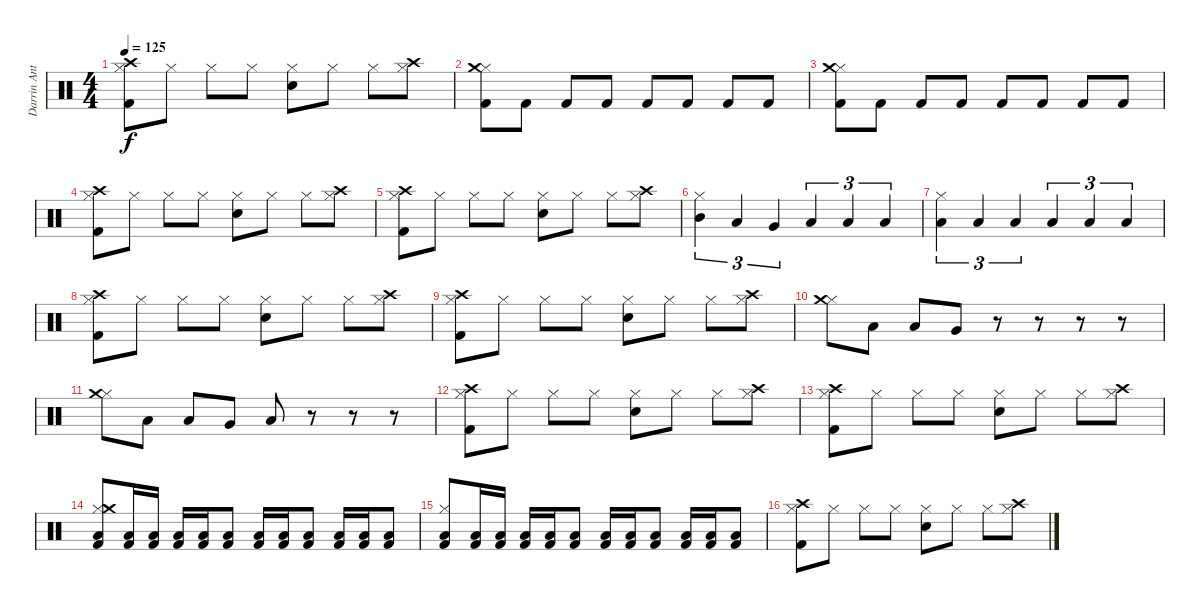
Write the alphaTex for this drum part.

\track ("Darrin Anthony (Drums)" "Darrin Ant") {instrument percussion}
\staff {score}
\articulation defaults
\ts (4 4)
\tempo 125
\clef neutral
\ks c
("Kick (hit) 2" "Hi-Hat (closed)" "Crash high (hit)").8{dy f} "Hi-Hat (closed)".8 "Hi-Hat (closed)".8 "Hi-Hat (closed)".8 ("Electric Snare (hit)" "Hi-Hat (closed)").8 "Hi-Hat (closed)".8 "Hi-Hat (closed)".8 ("Hi-Hat (closed)" "Crash high (hit)").8 |
("Kick (hit) 2" "Hi-Hat (closed)" "Crash medium (hit)").8 "Kick (hit) 2".8 "Kick (hit) 2".8 "Kick (hit) 2".8 "Kick (hit) 2".8 "Kick (hit) 2".8 "Kick (hit) 2".8 "Kick (hit) 2".8 |
("Kick (hit) 2" "Hi-Hat (closed)" "Crash medium (hit)").8 "Kick (hit) 2".8 "Kick (hit) 2".8 "Kick (hit) 2".8 "Kick (hit) 2".8 "Kick (hit) 2".8 "Kick (hit) 2".8 "Kick (hit) 2".8 |
("Kick (hit) 2" "Hi-Hat (closed)" "Crash high (hit)").8 "Hi-Hat (closed)".8 "Hi-Hat (closed)".8 "Hi-Hat (closed)".8 ("Electric Snare (hit)" "Hi-Hat (closed)").8 "Hi-Hat (closed)".8 "Hi-Hat (closed)".8 ("Hi-Hat (closed)" "Crash high (hit)").8 |
("Kick (hit) 2" "Hi-Hat (closed)" "Crash high (hit)").8 "Hi-Hat (closed)".8 "Hi-Hat (closed)".8 "Hi-Hat (closed)".8 ("Electric Snare (hit)" "Hi-Hat (closed)").8 "Hi-Hat (closed)".8 "Hi-Hat (closed)".8 ("Hi-Hat (closed)" "Crash high (hit)").8 |
("Mid Tom (hit)" "Hi-Hat (closed)").4{tu (3 2)} "Low Tom (hit)".4{tu (3 2)} "Very Low Tom (hit)".4{tu (3 2)} "Low Floor Tom (hit)".4{tu (3 2)} "Low Floor Tom (hit)".4{tu (3 2)} "Low Floor Tom (hit)".4{tu (3 2)} |
("Low Floor Tom (hit)" "Hi-Hat (closed)").4{tu (3 2)} "Low Floor Tom (hit)".4{tu (3 2)} "Low Floor Tom (hit)".4{tu (3 2)} "Low Floor Tom (hit)".4{tu (3 2)} "Low Floor Tom (hit)".4{tu (3 2)} "Low Floor Tom (hit)".4{tu (3 2)} |
("Kick (hit) 2" "Hi-Hat (closed)" "Crash high (hit)").8 "Hi-Hat (closed)".8 "Hi-Hat (closed)".8 "Hi-Hat (closed)".8 ("Electric Snare (hit)" "Hi-Hat (closed)").8 "Hi-Hat (closed)".8 "Hi-Hat (closed)".8 ("Hi-Hat (closed)" "Crash high (hit)").8 |
("Kick (hit) 2" "Hi-Hat (closed)" "Crash high (hit)").8 "Hi-Hat (closed)".8 "Hi-Hat (closed)".8 "Hi-Hat (closed)".8 ("Electric Snare (hit)" "Hi-Hat (closed)").8 "Hi-Hat (closed)".8 "Hi-Hat (closed)".8 ("Hi-Hat (closed)" "Crash high (hit)").8 |
("Hi-Hat (closed)" "Crash medium (hit)").8 "Low Tom (hit)".8 "Low Tom (hit)".8 "Very Low Tom (hit)".8 r.8 r.8 r.8 r.8 |
("Hi-Hat (closed)" "Crash medium (hit)").8 "Low Tom (hit)".8 "Low Tom (hit)".8 "Very Low Tom (hit)".8 "Low Floor Tom (hit)".8 r.8 r.8 r.8 |
("Kick (hit) 2" "Hi-Hat (closed)" "Crash high (hit)").8 "Hi-Hat (closed)".8 "Hi-Hat (closed)".8 "Hi-Hat (closed)".8 ("Electric Snare (hit)" "Hi-Hat (closed)").8 "Hi-Hat (closed)".8 "Hi-Hat (closed)".8 ("Hi-Hat (closed)" "Crash high (hit)").8 |
("Kick (hit) 2" "Hi-Hat (closed)" "Crash high (hit)").8 "Hi-Hat (closed)".8 "Hi-Hat (closed)".8 "Hi-Hat (closed)".8 ("Electric Snare (hit)" "Hi-Hat (closed)").8 "Hi-Hat (closed)".8 "Hi-Hat (closed)".8 ("Hi-Hat (closed)" "Crash high (hit)").8 |
("Kick (hit) 2" "Low Floor Tom (hit)" "Hi-Hat (closed)" "Crash medium (hit)").8 ("Kick (hit) 2" "Low Floor Tom (hit)").16 ("Kick (hit) 2" "Low Floor Tom (hit)").16 ("Kick (hit) 2" "Low Floor Tom (hit)").16 ("Kick (hit) 2" "Low Floor Tom (hit)").16 ("Kick (hit) 2" "Low Floor Tom (hit)").8 ("Kick (hit) 2" "Low Floor Tom (hit)").16 ("Kick (hit) 2" "Low Floor Tom (hit)").16 ("Kick (hit) 2" "Low Floor Tom (hit)").8 ("Kick (hit) 2" "Low Floor Tom (hit)").16 ("Kick (hit) 2" "Low Floor Tom (hit)").16 ("Kick (hit) 2" "Low Floor Tom (hit)").8 |
("Kick (hit) 2" "Low Floor Tom (hit)" "Hi-Hat (closed)").8 ("Kick (hit) 2" "Low Floor Tom (hit)").16 ("Kick (hit) 2" "Low Floor Tom (hit)").16 ("Kick (hit) 2" "Low Floor Tom (hit)").16 ("Kick (hit) 2" "Low Floor Tom (hit)").16 ("Kick (hit) 2" "Low Floor Tom (hit)").8 ("Kick (hit) 2" "Low Floor Tom (hit)").16 ("Kick (hit) 2" "Low Floor Tom (hit)").16 ("Kick (hit) 2" "Low Floor Tom (hit)").8 ("Kick (hit) 2" "Low Floor Tom (hit)").16 ("Kick (hit) 2" "Low Floor Tom (hit)").16 ("Kick (hit) 2" "Low Floor Tom (hit)").8 |
("Kick (hit) 2" "Hi-Hat (closed)" "Crash high (hit)").8 "Hi-Hat (closed)".8 "Hi-Hat (closed)".8 "Hi-Hat (closed)".8 ("Electric Snare (hit)" "Hi-Hat (closed)").8 "Hi-Hat (closed)".8 "Hi-Hat (closed)".8 ("Hi-Hat (closed)" "Crash high (hit)").8
